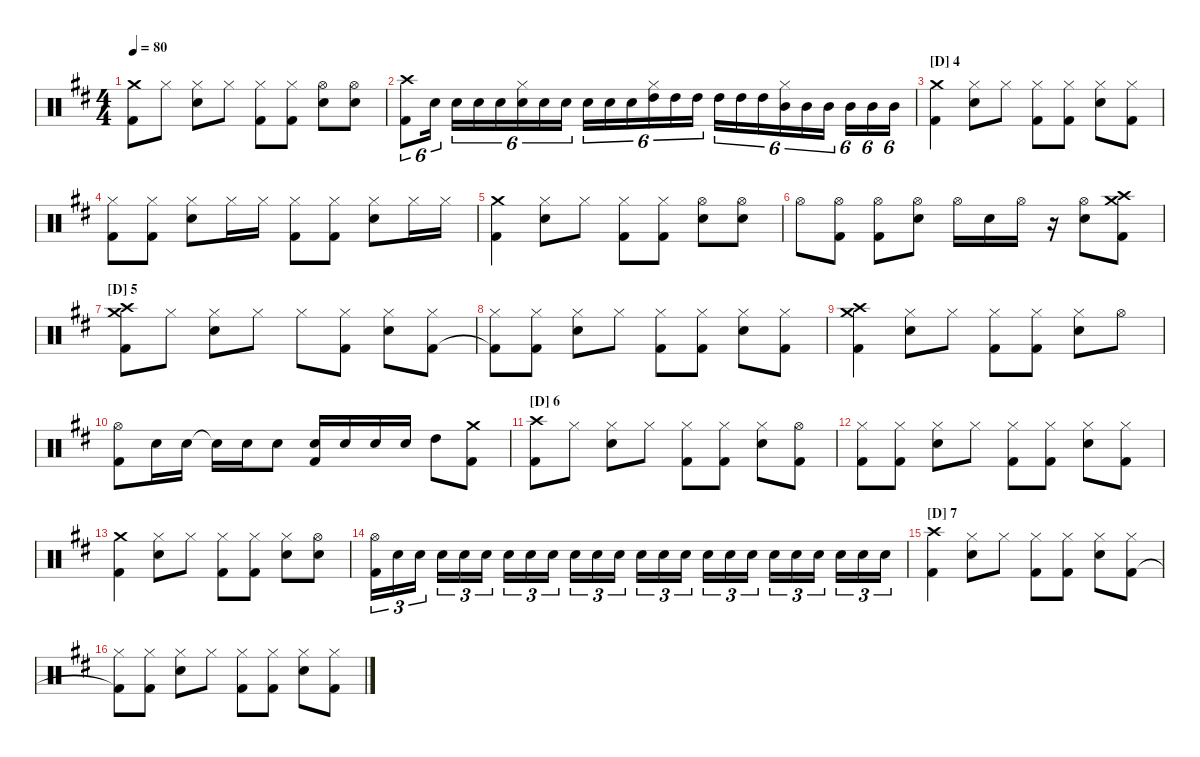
\hideDynamics
\bracketExtendMode nobrackets
\singleTrackTrackNamePolicy hidden
\multiTrackTrackNamePolicy hidden
\otherSystemsTrackNameOrientation horizontal
\track ("Drumkit" "Drums") {instrument percussion}
\staff {score}
\articulation defaults
\ts (4 4)
\tempo 80
\clef neutral
\ks d
("Crash medium (hit)"{acc forcenatural} "Kick (hit) 2"{acc forcenatural}).8{dy f beam Down} "Hi-Hat (closed)"{acc forcenatural}.8{beam Down} ("Hi-Hat (closed)"{acc forcenatural} "Snare (hit) 2"{acc forcenatural}).8{beam Down} "Hi-Hat (closed)"{acc forcenatural}.8{beam Down} ("Hi-Hat (closed)"{acc forcenatural} "Kick (hit) 2"{acc forcenatural}).8{beam Down} ("Hi-Hat (closed)"{acc forcenatural} "Kick (hit) 2"{acc forcenatural}).8{beam Down} ("Hi-Hat (open)"{acc forcenatural} "Snare (hit) 2"{acc forcenatural}).8{beam Down} ("Hi-Hat (open)"{acc forcenatural} "Snare (hit) 2"{acc forcenatural}).8{beam Down} |
("Crash high (hit)"{acc forcenatural} "Kick (hit) 2"{acc forcenatural}).8{tu (6 4) beam Down} "Snare (hit) 2"{acc forcenatural}.16{tu (6 4) beam Down} "Snare (hit) 2"{acc forcenatural}.16{tu (6 4) beam Down} "Snare (hit) 2"{acc forcenatural}.16{tu (6 4) beam Down} "Snare (hit) 2"{acc forcenatural}.16{tu (6 4) beam Down} ("Hi-Hat (closed)"{acc forcenatural} "Snare (hit) 2"{acc forcenatural}).16{tu (6 4) beam Down} "Snare (hit) 2"{acc forcenatural}.16{tu (6 4) beam Down} "Snare (hit) 2"{acc forcenatural}.16{tu (6 4) beam Down} "Snare (hit) 2"{acc forcenatural}.16{tu (6 4) beam Down} "Snare (hit) 2"{acc forcenatural}.16{tu (6 4) beam Down} "Snare (hit) 2"{acc forcenatural}.16{tu (6 4) beam Down} ("Hi-Hat (closed)"{acc forcenatural} "High Tom (hit)"{acc forcenatural}).16{tu (6 4) beam Down} "High Tom (hit)"{acc forcenatural}.16{tu (6 4) beam Down} "High Tom (hit)"{acc forcenatural}.16{tu (6 4) beam Down} "High Tom (hit)"{acc forcenatural}.16{tu (6 4) beam Down} "High Tom (hit)"{acc forcenatural}.16{tu (6 4) beam Down} "High Tom (hit)"{acc forcenatural}.16{tu (6 4) beam Down} ("Hi-Hat (closed)"{acc forcenatural} "Mid Tom (hit)"{acc forcenatural}).16{tu (6 4) beam Down} "Mid Tom (hit)"{acc forcenatural}.16{tu (6 4) beam Down} "Mid Tom (hit)"{acc forcenatural}.16{tu (6 4) beam Down} "Mid Tom (hit)"{acc forcenatural}.16{tu (6 4) beam Down} "Mid Tom (hit)"{acc forcenatural}.16{tu (6 4) beam Down} "Mid Tom (hit)"{acc forcenatural}.16{tu (6 4) beam Down} |
\section ("D" "4")
("Crash medium (hit)"{acc forcenatural} "Kick (hit) 2"{acc forcenatural}).4{beam Down} ("Hi-Hat (closed)"{acc forcenatural} "Snare (hit) 2"{acc forcenatural}).8{beam Down} "Hi-Hat (closed)"{acc forcenatural}.8{beam Down} ("Hi-Hat (closed)"{acc forcenatural} "Kick (hit) 2"{acc forcenatural}).8{beam Down} ("Hi-Hat (closed)"{acc forcenatural} "Kick (hit) 2"{acc forcenatural}).8{beam Down} ("Hi-Hat (closed)"{acc forcenatural} "Snare (hit) 2"{acc forcenatural}).8{beam Down} ("Hi-Hat (closed)"{acc forcenatural} "Kick (hit) 2"{acc forcenatural}).8{beam Down} |
("Hi-Hat (closed)"{acc forcenatural} "Kick (hit) 2"{acc forcenatural}).8{beam Down} ("Hi-Hat (closed)"{acc forcenatural} "Kick (hit) 2"{acc forcenatural}).8{beam Down} ("Hi-Hat (closed)"{acc forcenatural} "Snare (hit) 2"{acc forcenatural}).8{beam Down} "Hi-Hat (closed)"{acc forcenatural}.16{beam Down} "Hi-Hat (closed)"{acc forcenatural}.16{beam Down} ("Hi-Hat (closed)"{acc forcenatural} "Kick (hit) 2"{acc forcenatural}).8{beam Down} ("Hi-Hat (closed)"{acc forcenatural} "Kick (hit) 2"{acc forcenatural}).8{beam Down} ("Hi-Hat (closed)"{acc forcenatural} "Snare (hit) 2"{acc forcenatural}).8{beam Down} "Hi-Hat (closed)"{acc forcenatural}.16{beam Down} "Hi-Hat (closed)"{acc forcenatural}.16{beam Down} |
("Crash medium (hit)"{acc forcenatural} "Kick (hit) 2"{acc forcenatural}).4{beam Down} ("Hi-Hat (closed)"{acc forcenatural} "Snare (hit) 2"{acc forcenatural}).8{beam Down} "Hi-Hat (closed)"{acc forcenatural}.8{beam Down} ("Hi-Hat (closed)"{acc forcenatural} "Kick (hit) 2"{acc forcenatural}).8{beam Down} ("Hi-Hat (closed)"{acc forcenatural} "Kick (hit) 2"{acc forcenatural}).8{beam Down} ("Hi-Hat (open)"{acc forcenatural} "Snare (hit) 2"{acc forcenatural}).8{beam Down} ("Hi-Hat (open)"{acc forcenatural} "Snare (hit) 2"{acc forcenatural}).8{beam Down} |
"Hi-Hat (open)"{acc forcenatural}.8{beam Down} ("Hi-Hat (open)"{acc forcenatural} "Kick (hit) 2"{acc forcenatural}).8{beam Down} ("Hi-Hat (open)"{acc forcenatural} "Kick (hit) 2"{acc forcenatural}).8{beam Down} ("Hi-Hat (open)"{acc forcenatural} "Snare (hit) 2"{acc forcenatural}).8{beam Down} "Hi-Hat (open)"{acc forcenatural}.16{beam Down} "Snare (hit) 2"{acc forcenatural}.16{beam Down} "Hi-Hat (open)"{acc forcenatural}.16{beam Down} r.16{beam Down} ("Hi-Hat (open)"{acc forcenatural} "Snare (hit) 2"{acc forcenatural}).8{beam Down} ("Crash high (hit)"{acc forcenatural} "Crash medium (hit)"{acc forcenatural} "Kick (hit) 2"{acc forcenatural}).8{beam Down} |
\section ("D" "5")
("Crash high (hit)"{acc forcenatural} "Crash medium (hit)"{acc forcenatural} "Kick (hit) 2"{acc forcenatural}).8{beam Down} "Hi-Hat (closed)"{acc forcenatural}.8{beam Down} ("Hi-Hat (closed)"{acc forcenatural} "Snare (hit) 2"{acc forcenatural}).8{beam Down} "Hi-Hat (closed)"{acc forcenatural}.8{beam Down} "Hi-Hat (closed)"{acc forcenatural}.8{beam Down} ("Hi-Hat (closed)"{acc forcenatural} "Kick (hit) 2"{acc forcenatural}).8{beam Down} ("Hi-Hat (closed)"{acc forcenatural} "Snare (hit) 2"{acc forcenatural}).8{beam Down} ("Hi-Hat (closed)"{acc forcenatural} "Kick (hit) 2"{acc forcenatural}).8{beam Down} |
("Hi-Hat (closed)"{acc forcenatural} "Kick (hit) 2"{t acc forcenatural}).8{beam Down} ("Hi-Hat (closed)"{acc forcenatural} "Kick (hit) 2"{acc forcenatural}).8{beam Down} ("Hi-Hat (closed)"{acc forcenatural} "Snare (hit) 2"{acc forcenatural}).8{beam Down} "Hi-Hat (closed)"{acc forcenatural}.8{beam Down} ("Hi-Hat (closed)"{acc forcenatural} "Kick (hit) 2"{acc forcenatural}).8{beam Down} ("Hi-Hat (closed)"{acc forcenatural} "Kick (hit) 2"{acc forcenatural}).8{beam Down} ("Hi-Hat (closed)"{acc forcenatural} "Snare (hit) 2"{acc forcenatural}).8{beam Down} ("Hi-Hat (closed)"{acc forcenatural} "Kick (hit) 2"{acc forcenatural}).8{beam Down} |
("Crash medium (hit)"{acc forcenatural} "Crash high (hit)"{acc forcenatural} "Kick (hit) 2"{acc forcenatural}).4{beam Down} ("Hi-Hat (closed)"{acc forcenatural} "Snare (hit) 2"{acc forcenatural}).8{beam Down} "Hi-Hat (closed)"{acc forcenatural}.8{beam Down} ("Hi-Hat (closed)"{acc forcenatural} "Kick (hit) 2"{acc forcenatural}).8{beam Down} ("Hi-Hat (closed)"{acc forcenatural} "Kick (hit) 2"{acc forcenatural}).8{beam Down} ("Hi-Hat (closed)"{acc forcenatural} "Snare (hit) 2"{acc forcenatural}).8{beam Down} "Hi-Hat (open)"{acc forcenatural}.8{beam Down} |
("Hi-Hat (open)"{acc forcenatural} "Kick (hit) 2"{acc forcenatural}).8{beam Down} "Snare (hit) 2"{acc forcenatural}.16{beam Down} "Snare (hit) 2"{acc forcenatural}.16{beam Down} "Snare (hit) 2"{t acc forcenatural}.16{beam Down} "Snare (hit) 2"{acc forcenatural}.16{beam Down} "Snare (hit) 2"{acc forcenatural}.8{beam Down} ("Snare (hit) 2"{acc forcenatural} "Kick (hit) 2"{acc forcenatural}).16{beam Up} "Snare (hit) 2"{acc forcenatural}.16{beam Up} "Snare (hit) 2"{acc forcenatural}.16{beam Up} "Snare (hit) 2"{acc forcenatural}.16{beam Up} "High Tom (hit)"{acc forcenatural}.8{beam Down} ("Crash medium (hit)"{acc forcenatural} "Kick (hit) 2"{acc forcenatural}).8{beam Down} |
\section ("D" "6")
("Crash high (hit)"{acc forcenatural} "Kick (hit) 2"{acc forcenatural}).8{beam Down} "Hi-Hat (closed)"{acc forcenatural}.8{beam Down} ("Hi-Hat (closed)"{acc forcenatural} "Snare (hit) 2"{acc forcenatural}).8{beam Down} "Hi-Hat (closed)"{acc forcenatural}.8{beam Down} ("Hi-Hat (closed)"{acc forcenatural} "Kick (hit) 2"{acc forcenatural}).8{beam Down} ("Hi-Hat (closed)"{acc forcenatural} "Kick (hit) 2"{acc forcenatural}).8{beam Down} ("Hi-Hat (closed)"{acc forcenatural} "Snare (hit) 2"{acc forcenatural}).8{beam Down} ("Hi-Hat (open)"{acc forcenatural} "Kick (hit) 2"{acc forcenatural}).8{beam Down} |
("Hi-Hat (closed)"{acc forcenatural} "Kick (hit) 2"{acc forcenatural}).8{beam Down} ("Hi-Hat (closed)"{acc forcenatural} "Kick (hit) 2"{acc forcenatural}).8{beam Down} ("Hi-Hat (closed)"{acc forcenatural} "Snare (hit) 2"{acc forcenatural}).8{beam Down} "Hi-Hat (closed)"{acc forcenatural}.8{beam Down} ("Hi-Hat (closed)"{acc forcenatural} "Kick (hit) 2"{acc forcenatural}).8{beam Down} ("Hi-Hat (closed)"{acc forcenatural} "Kick (hit) 2"{acc forcenatural}).8{beam Down} ("Hi-Hat (closed)"{acc forcenatural} "Snare (hit) 2"{acc forcenatural}).8{beam Down} ("Hi-Hat (closed)"{acc forcenatural} "Kick (hit) 2"{acc forcenatural}).8{beam Down} |
("Crash medium (hit)"{acc forcenatural} "Kick (hit) 2"{acc forcenatural}).4{beam Down} ("Hi-Hat (closed)"{acc forcenatural} "Snare (hit) 2"{acc forcenatural}).8{beam Down} "Hi-Hat (closed)"{acc forcenatural}.8{beam Down} ("Hi-Hat (closed)"{acc forcenatural} "Kick (hit) 2"{acc forcenatural}).8{beam Down} ("Hi-Hat (closed)"{acc forcenatural} "Kick (hit) 2"{acc forcenatural}).8{beam Down} ("Hi-Hat (closed)"{acc forcenatural} "Snare (hit) 2"{acc forcenatural}).8{beam Down} ("Hi-Hat (open)"{acc forcenatural} "Snare (hit) 2"{acc forcenatural}).8{beam Down} |
("Hi-Hat (open)"{acc forcenatural} "Kick (hit) 2"{acc forcenatural}).16{tu (3 2) beam Down} "Snare (hit) 2"{acc forcenatural}.16{tu (3 2) beam Down} "Snare (hit) 2"{acc forcenatural}.16{tu (3 2) beam Down} "Snare (hit) 2"{acc forcenatural}.16{tu (3 2) beam Down} "Snare (hit) 2"{acc forcenatural}.16{tu (3 2) beam Down} "Snare (hit) 2"{acc forcenatural}.16{tu (3 2) beam Down} "Snare (hit) 2"{acc forcenatural}.16{tu (3 2) beam Down} "Snare (hit) 2"{acc forcenatural}.16{tu (3 2) beam Down} "Snare (hit) 2"{acc forcenatural}.16{tu (3 2) beam Down} "Snare (hit) 2"{acc forcenatural}.16{tu (3 2) beam Down} "Snare (hit) 2"{acc forcenatural}.16{tu (3 2) beam Down} "Snare (hit) 2"{acc forcenatural}.16{tu (3 2) beam Down} "Snare (hit) 2"{acc forcenatural}.16{tu (3 2) beam Down} "Snare (hit) 2"{acc forcenatural}.16{tu (3 2) beam Down} "Snare (hit) 2"{acc forcenatural}.16{tu (3 2) beam Down} "Snare (hit) 2"{acc forcenatural}.16{tu (3 2) beam Down} "Snare (hit) 2"{acc forcenatural}.16{tu (3 2) beam Down} "Snare (hit) 2"{acc forcenatural}.16{tu (3 2) beam Down} "Snare (hit) 2"{acc forcenatural}.16{tu (3 2) beam Down} "Snare (hit) 2"{acc forcenatural}.16{tu (3 2) beam Down} "Snare (hit) 2"{acc forcenatural}.16{tu (3 2) beam Down} "Snare (hit) 2"{acc forcenatural}.16{tu (3 2) beam Down} "Snare (hit) 2"{acc forcenatural}.16{tu (3 2) beam Down} "Snare (hit) 2"{acc forcenatural}.16{tu (3 2) beam Down} |
\section ("D" "7")
("Crash high (hit)"{acc forcenatural} "Kick (hit) 2"{acc forcenatural}).4{beam Down} ("Hi-Hat (closed)"{acc forcenatural} "Snare (hit) 2"{acc forcenatural}).8{beam Down} "Hi-Hat (closed)"{acc forcenatural}.8{beam Down} ("Hi-Hat (closed)"{acc forcenatural} "Kick (hit) 2"{acc forcenatural}).8{beam Down} ("Hi-Hat (closed)"{acc forcenatural} "Kick (hit) 2"{acc forcenatural}).8{beam Down} ("Hi-Hat (closed)"{acc forcenatural} "Snare (hit) 2"{acc forcenatural}).8{beam Down} ("Hi-Hat (closed)"{acc forcenatural} "Kick (hit) 2"{acc forcenatural}).8{beam Down} |
("Hi-Hat (closed)"{acc forcenatural} "Kick (hit) 2"{t acc forcenatural}).8{beam Down} ("Hi-Hat (closed)"{acc forcenatural} "Kick (hit) 2"{acc forcenatural}).8{beam Down} ("Hi-Hat (closed)"{acc forcenatural} "Snare (hit) 2"{acc forcenatural}).8{beam Down} "Hi-Hat (closed)"{acc forcenatural}.8{beam Down} ("Hi-Hat (closed)"{acc forcenatural} "Kick (hit) 2"{acc forcenatural}).8{beam Down} ("Hi-Hat (closed)"{acc forcenatural} "Kick (hit) 2"{acc forcenatural}).8{beam Down} ("Hi-Hat (closed)"{acc forcenatural} "Snare (hit) 2"{acc forcenatural}).8{beam Down} ("Hi-Hat (closed)"{acc forcenatural} "Kick (hit) 2"{acc forcenatural}).8{beam Down}
